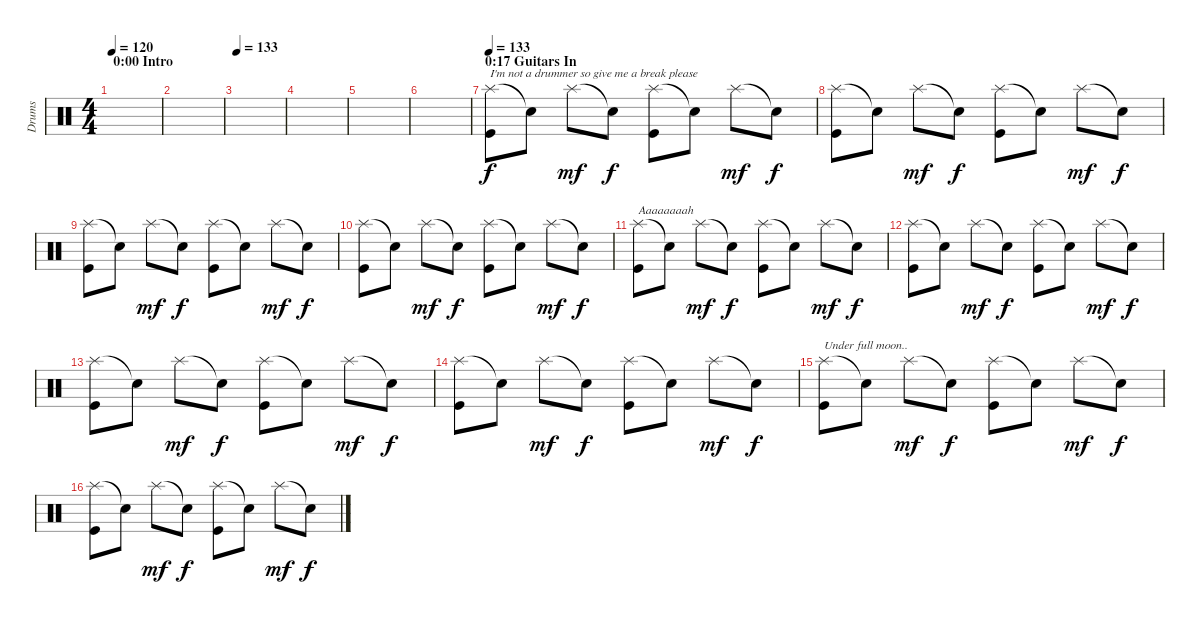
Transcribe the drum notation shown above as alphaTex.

\track ("Drums" "Drums") {instrument percussion}
\staff {score}
\articulation defaults
\ts (4 4)
\section ("" "0:00 Intro")
\tempo 120
\clef neutral
\ks c
|
|
\tempo 133
|
|
|
|
\section ("" "0:17 Guitars In")
\tempo 133
("Splash (hit)" "Kick (hit)").8{txt "I'm not a drummer so give me a break please"} "Snare (hit)"{t}.8 "Splash (hit)".8{dy mf} "Snare (hit)"{t}.8{dy f} ("Splash (hit)" "Kick (hit)").8 "Snare (hit)"{t}.8 "Splash (hit)".8{dy mf} "Snare (hit)"{t}.8{dy f} |
("Splash (hit)" "Kick (hit)").8 "Snare (hit)"{t}.8 "Splash (hit)".8{dy mf} "Snare (hit)"{t}.8{dy f} ("Splash (hit)" "Kick (hit)").8 "Snare (hit)"{t}.8 "Splash (hit)".8{dy mf} "Snare (hit)"{t}.8{dy f} |
("Splash (hit)" "Kick (hit)").8 "Snare (hit)"{t}.8 "Splash (hit)".8{dy mf} "Snare (hit)"{t}.8{dy f} ("Splash (hit)" "Kick (hit)").8 "Snare (hit)"{t}.8 "Splash (hit)".8{dy mf} "Snare (hit)"{t}.8{dy f} |
("Splash (hit)" "Kick (hit)").8 "Snare (hit)"{t}.8 "Splash (hit)".8{dy mf} "Snare (hit)"{t}.8{dy f} ("Splash (hit)" "Kick (hit)").8 "Snare (hit)"{t}.8 "Splash (hit)".8{dy mf} "Snare (hit)"{t}.8{dy f} |
("Splash (hit)" "Kick (hit)").8{txt "Aaaaaaaah"} "Snare (hit)"{t}.8 "Splash (hit)".8{dy mf} "Snare (hit)"{t}.8{dy f} ("Splash (hit)" "Kick (hit)").8 "Snare (hit)"{t}.8 "Splash (hit)".8{dy mf} "Snare (hit)"{t}.8{dy f} |
("Splash (hit)" "Kick (hit)").8 "Snare (hit)"{t}.8 "Splash (hit)".8{dy mf} "Snare (hit)"{t}.8{dy f} ("Splash (hit)" "Kick (hit)").8 "Snare (hit)"{t}.8 "Splash (hit)".8{dy mf} "Snare (hit)"{t}.8{dy f} |
("Splash (hit)" "Kick (hit)").8 "Snare (hit)"{t}.8 "Splash (hit)".8{dy mf} "Snare (hit)"{t}.8{dy f} ("Splash (hit)" "Kick (hit)").8 "Snare (hit)"{t}.8 "Splash (hit)".8{dy mf} "Snare (hit)"{t}.8{dy f} |
("Splash (hit)" "Kick (hit)").8 "Snare (hit)"{t}.8 "Splash (hit)".8{dy mf} "Snare (hit)"{t}.8{dy f} ("Splash (hit)" "Kick (hit)").8 "Snare (hit)"{t}.8 "Splash (hit)".8{dy mf} "Snare (hit)"{t}.8{dy f} |
("Splash (hit)" "Kick (hit)").8{txt "Under full moon.."} "Snare (hit)"{t}.8 "Splash (hit)".8{dy mf} "Snare (hit)"{t}.8{dy f} ("Splash (hit)" "Kick (hit)").8 "Snare (hit)"{t}.8 "Splash (hit)".8{dy mf} "Snare (hit)"{t}.8{dy f} |
("Splash (hit)" "Kick (hit)").8 "Snare (hit)"{t}.8 "Splash (hit)".8{dy mf} "Snare (hit)"{t}.8{dy f} ("Splash (hit)" "Kick (hit)").8 "Snare (hit)"{t}.8 "Splash (hit)".8{dy mf} "Snare (hit)"{t}.8{dy f}
